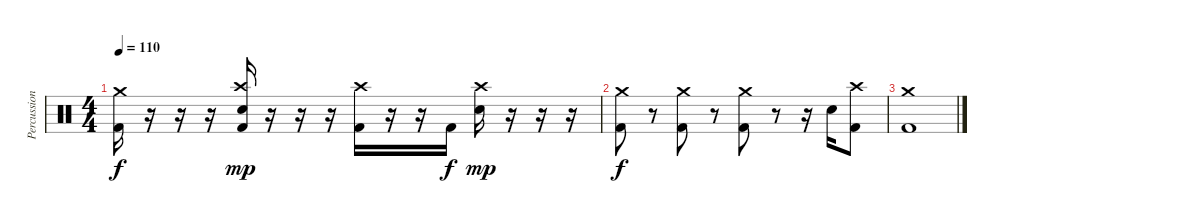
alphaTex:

\track ("Percussion" "Percussion") {instrument percussion}
\staff {score}
\articulation defaults
\ts (4 4)
\tempo 110
\clef neutral
\ks c
("Crash medium (hit)" "Kick (hit) 2").16{dy f} r.16 r.16 r.16 ("Crash high (hit)" "Electric Snare (hit)" "Kick (hit) 2").16{dy mp} r.16 r.16 r.16 ("Crash high (hit)" "Kick (hit) 2").16 r.16 r.16 "Kick (hit) 2".16{dy f} ("Crash high (hit)" "Electric Snare (hit)").16{dy mp} r.16 r.16 r.16 |
("Crash medium (hit)" "Kick (hit) 2").8{dy f} r.8 ("Crash medium (hit)" "Kick (hit) 2").8 r.8 ("Crash medium (hit)" "Kick (hit) 2").8 r.8 r.16 "Electric Snare (hit)".16 ("Crash high (hit)" "Kick (hit) 2").8 |
("Crash medium (hit)" "Kick (hit) 2").1
